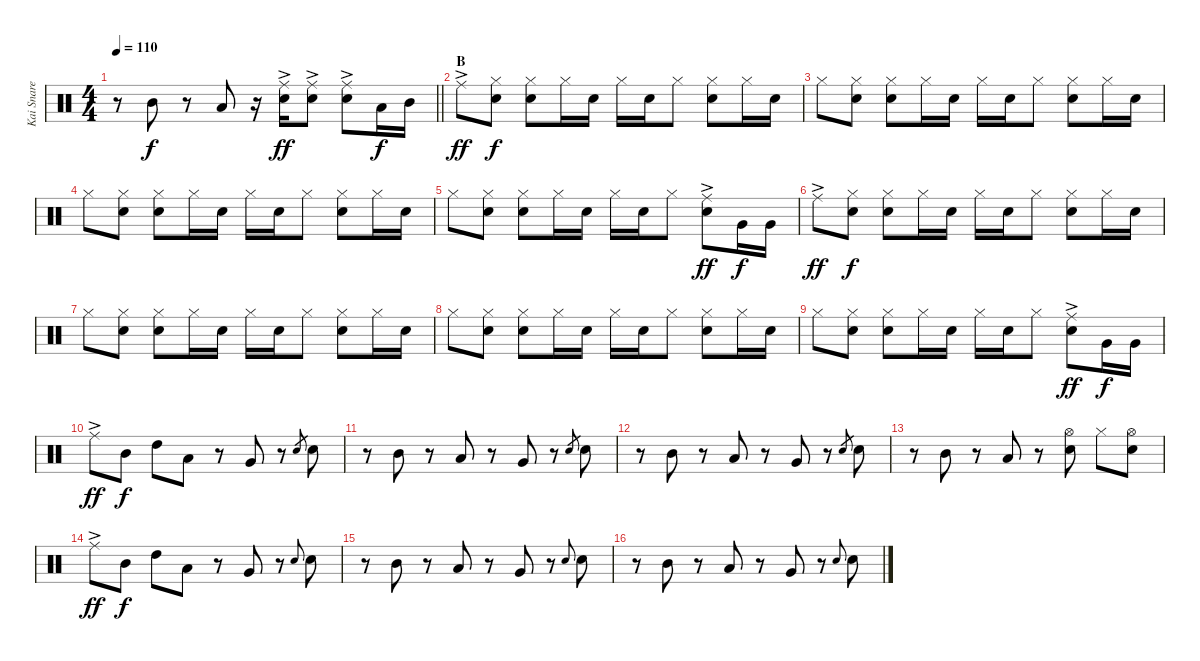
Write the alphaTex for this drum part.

\track ("Kai Snare" "Kai Snare") {instrument percussion}
\staff {score}
\articulation defaults
\ts (4 4)
\tempo 110
\clef neutral
\barLineRight lightlight
\ks c
r.8{dy f} "Mid Tom (hit)".8 r.8 "Low Tom (hit)".8 r.16 ("Ride (middle)"{ac} "Snare (hit) 2").16{dy ff} ("Ride (middle)"{ac} "Snare (hit) 2").8 ("Ride (middle)"{ac} "Snare (hit) 2").8 "Low Tom (hit)".16{dy f} "Mid Tom (hit)".16 |
\section ("" "B")
"Ride (middle)"{ac}.8{dy ff} ("Hi-Hat (closed)" "Snare (hit) 2").8{dy f} ("Hi-Hat (closed)" "Snare (hit) 2").8 "Hi-Hat (closed)".16 "Snare (hit) 2".16 "Hi-Hat (closed)".16 "Snare (hit) 2".16 "Hi-Hat (closed)".8 ("Hi-Hat (closed)" "Snare (hit) 2").8 "Hi-Hat (closed)".16 "Snare (hit) 2".16 |
"Hi-Hat (closed)".8 ("Hi-Hat (closed)" "Snare (hit) 2").8 ("Hi-Hat (closed)" "Snare (hit) 2").8 "Hi-Hat (closed)".16 "Snare (hit) 2".16 "Hi-Hat (closed)".16 "Snare (hit) 2".16 "Hi-Hat (closed)".8 ("Hi-Hat (closed)" "Snare (hit) 2").8 "Hi-Hat (closed)".16 "Snare (hit) 2".16 |
"Hi-Hat (closed)".8 ("Hi-Hat (closed)" "Snare (hit) 2").8 ("Hi-Hat (closed)" "Snare (hit) 2").8 "Hi-Hat (closed)".16 "Snare (hit) 2".16 "Hi-Hat (closed)".16 "Snare (hit) 2".16 "Hi-Hat (closed)".8 ("Hi-Hat (closed)" "Snare (hit) 2").8 "Hi-Hat (closed)".16 "Snare (hit) 2".16 |
"Hi-Hat (closed)".8 ("Hi-Hat (closed)" "Snare (hit) 2").8 ("Hi-Hat (closed)" "Snare (hit) 2").8 "Hi-Hat (closed)".16 "Snare (hit) 2".16 "Hi-Hat (closed)".16 "Snare (hit) 2".16 "Hi-Hat (closed)".8 ("Ride (middle)"{ac} "Snare (hit) 2").8{dy ff} "Very Low Tom (hit)".16{dy f} "Very Low Tom (hit)".16 |
"Ride (middle)"{ac}.8{dy ff} ("Hi-Hat (closed)" "Snare (hit) 2").8{dy f} ("Hi-Hat (closed)" "Snare (hit) 2").8 "Hi-Hat (closed)".16 "Snare (hit) 2".16 "Hi-Hat (closed)".16 "Snare (hit) 2".16 "Hi-Hat (closed)".8 ("Hi-Hat (closed)" "Snare (hit) 2").8 "Hi-Hat (closed)".16 "Snare (hit) 2".16 |
"Hi-Hat (closed)".8 ("Hi-Hat (closed)" "Snare (hit) 2").8 ("Hi-Hat (closed)" "Snare (hit) 2").8 "Hi-Hat (closed)".16 "Snare (hit) 2".16 "Hi-Hat (closed)".16 "Snare (hit) 2".16 "Hi-Hat (closed)".8 ("Hi-Hat (closed)" "Snare (hit) 2").8 "Hi-Hat (closed)".16 "Snare (hit) 2".16 |
"Hi-Hat (closed)".8 ("Hi-Hat (closed)" "Snare (hit) 2").8 ("Hi-Hat (closed)" "Snare (hit) 2").8 "Hi-Hat (closed)".16 "Snare (hit) 2".16 "Hi-Hat (closed)".16 "Snare (hit) 2".16 "Hi-Hat (closed)".8 ("Hi-Hat (closed)" "Snare (hit) 2").8 "Hi-Hat (closed)".16 "Snare (hit) 2".16 |
"Hi-Hat (closed)".8 ("Hi-Hat (closed)" "Snare (hit) 2").8 ("Hi-Hat (closed)" "Snare (hit) 2").8 "Hi-Hat (closed)".16 "Snare (hit) 2".16 "Hi-Hat (closed)".16 "Snare (hit) 2".16 "Hi-Hat (closed)".8 ("Ride (middle)"{ac} "Snare (hit) 2").8{dy ff} "Very Low Tom (hit)".16{dy f} "Very Low Tom (hit)".16 |
"Ride (middle)"{ac}.8{dy ff} "Mid Tom (hit)".8{dy f} "High Tom (hit)".8 "Low Tom (hit)".8 r.8 "Very Low Tom (hit)".8 r.8 "Snare (hit) 2".8{gr} "Snare (hit) 2".8 |
r.8 "Mid Tom (hit)".8 r.8 "Low Tom (hit)".8 r.8 "Very Low Tom (hit)".8 r.8 "Snare (hit) 2".8{gr} "Snare (hit) 2".8 |
r.8 "Mid Tom (hit)".8 r.8 "Low Tom (hit)".8 r.8 "Very Low Tom (hit)".8 r.8 "Snare (hit) 2".8{gr} "Snare (hit) 2".8 |
r.8 "Mid Tom (hit)".8 r.8 "Low Tom (hit)".8 r.8 ("Hi-Hat (open)" "Snare (hit) 2").8 "Hi-Hat (closed)".8 ("Hi-Hat (open)" "Snare (hit) 2").8 |
"Ride (middle)"{ac}.8{dy ff} "Mid Tom (hit)".8{dy f} "High Tom (hit)".8 "Low Tom (hit)".8 r.8 "Very Low Tom (hit)".8 r.8 "Snare (hit) 2".8{gr onbeat} "Snare (hit) 2".8 |
r.8 "Mid Tom (hit)".8 r.8 "Low Tom (hit)".8 r.8 "Very Low Tom (hit)".8 r.8 "Snare (hit) 2".8{gr onbeat} "Snare (hit) 2".8 |
r.8 "Mid Tom (hit)".8 r.8 "Low Tom (hit)".8 r.8 "Very Low Tom (hit)".8 r.8 "Snare (hit) 2".8{gr onbeat} "Snare (hit) 2".8
